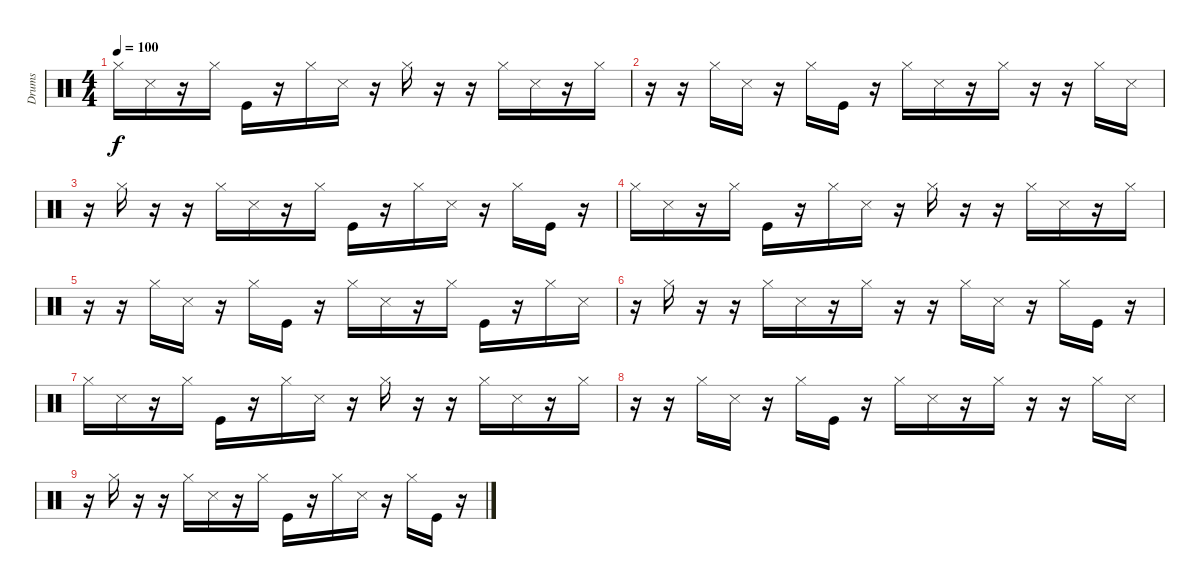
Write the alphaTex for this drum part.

\track ("Drums" "Drums") {instrument percussion}
\staff {score}
\articulation defaults
\ts (4 4)
\tempo 100
\clef neutral
\ks c "Hi-Hat (closed)".16{dy f} "Snare (side stick) 3".16
r.16 "Hi-Hat (closed)".16 "Kick (hit)".16 r.16 "Hi-Hat (closed)".16 "Snare (side stick) 3".16 r.16 "Hi-Hat (closed)".16 r.16 r.16 "Hi-Hat (closed)".16 "Snare (side stick) 3".16 r.16 "Hi-Hat (closed)".16 |
r.16 r.16 "Hi-Hat (closed)".16 "Snare (side stick) 3".16 r.16 "Hi-Hat (closed)".16 "Kick (hit)".16 r.16 "Hi-Hat (closed)".16 "Snare (side stick) 3".16 r.16 "Hi-Hat (closed)".16 r.16 r.16 "Hi-Hat (closed)".16 "Snare (side stick) 3".16 |
r.16 "Hi-Hat (closed)".16 r.16 r.16 "Hi-Hat (closed)".16 "Snare (side stick) 3".16 r.16 "Hi-Hat (closed)".16 "Kick (hit)".16 r.16 "Hi-Hat (closed)".16 "Snare (side stick) 3".16 r.16 "Hi-Hat (closed)".16 "Kick (hit)".16 r.16 |
"Hi-Hat (closed)".16 "Snare (side stick) 3".16 r.16 "Hi-Hat (closed)".16 "Kick (hit)".16 r.16 "Hi-Hat (closed)".16 "Snare (side stick) 3".16 r.16 "Hi-Hat (closed)".16 r.16 r.16 "Hi-Hat (closed)".16 "Snare (side stick) 3".16 r.16 "Hi-Hat (closed)".16 |
r.16 r.16 "Hi-Hat (closed)".16 "Snare (side stick) 3".16 r.16 "Hi-Hat (closed)".16 "Kick (hit)".16 r.16 "Hi-Hat (closed)".16 "Snare (side stick) 3".16 r.16 "Hi-Hat (closed)".16 "Kick (hit)".16 r.16 "Hi-Hat (closed)".16 "Snare (side stick) 3".16 |
r.16 "Hi-Hat (closed)".16 r.16 r.16 "Hi-Hat (closed)".16 "Snare (side stick) 3".16 r.16 "Hi-Hat (closed)".16 r.16 r.16 "Hi-Hat (closed)".16 "Snare (side stick) 3".16 r.16 "Hi-Hat (closed)".16 "Kick (hit)".16 r.16 |
"Hi-Hat (closed)".16 "Snare (side stick) 3".16 r.16 "Hi-Hat (closed)".16 "Kick (hit)".16 r.16 "Hi-Hat (closed)".16 "Snare (side stick) 3".16 r.16 "Hi-Hat (closed)".16 r.16 r.16 "Hi-Hat (closed)".16 "Snare (side stick) 3".16 r.16 "Hi-Hat (closed)".16 |
r.16 r.16 "Hi-Hat (closed)".16 "Snare (side stick) 3".16 r.16 "Hi-Hat (closed)".16 "Kick (hit)".16 r.16 "Hi-Hat (closed)".16 "Snare (side stick) 3".16 r.16 "Hi-Hat (closed)".16 r.16 r.16 "Hi-Hat (closed)".16 "Snare (side stick) 3".16 |
r.16 "Hi-Hat (closed)".16 r.16 r.16 "Hi-Hat (closed)".16 "Snare (side stick) 3".16 r.16 "Hi-Hat (closed)".16 "Kick (hit)".16 r.16 "Hi-Hat (closed)".16 "Snare (side stick) 3".16 r.16 "Hi-Hat (closed)".16 "Kick (hit)".16 r.16
